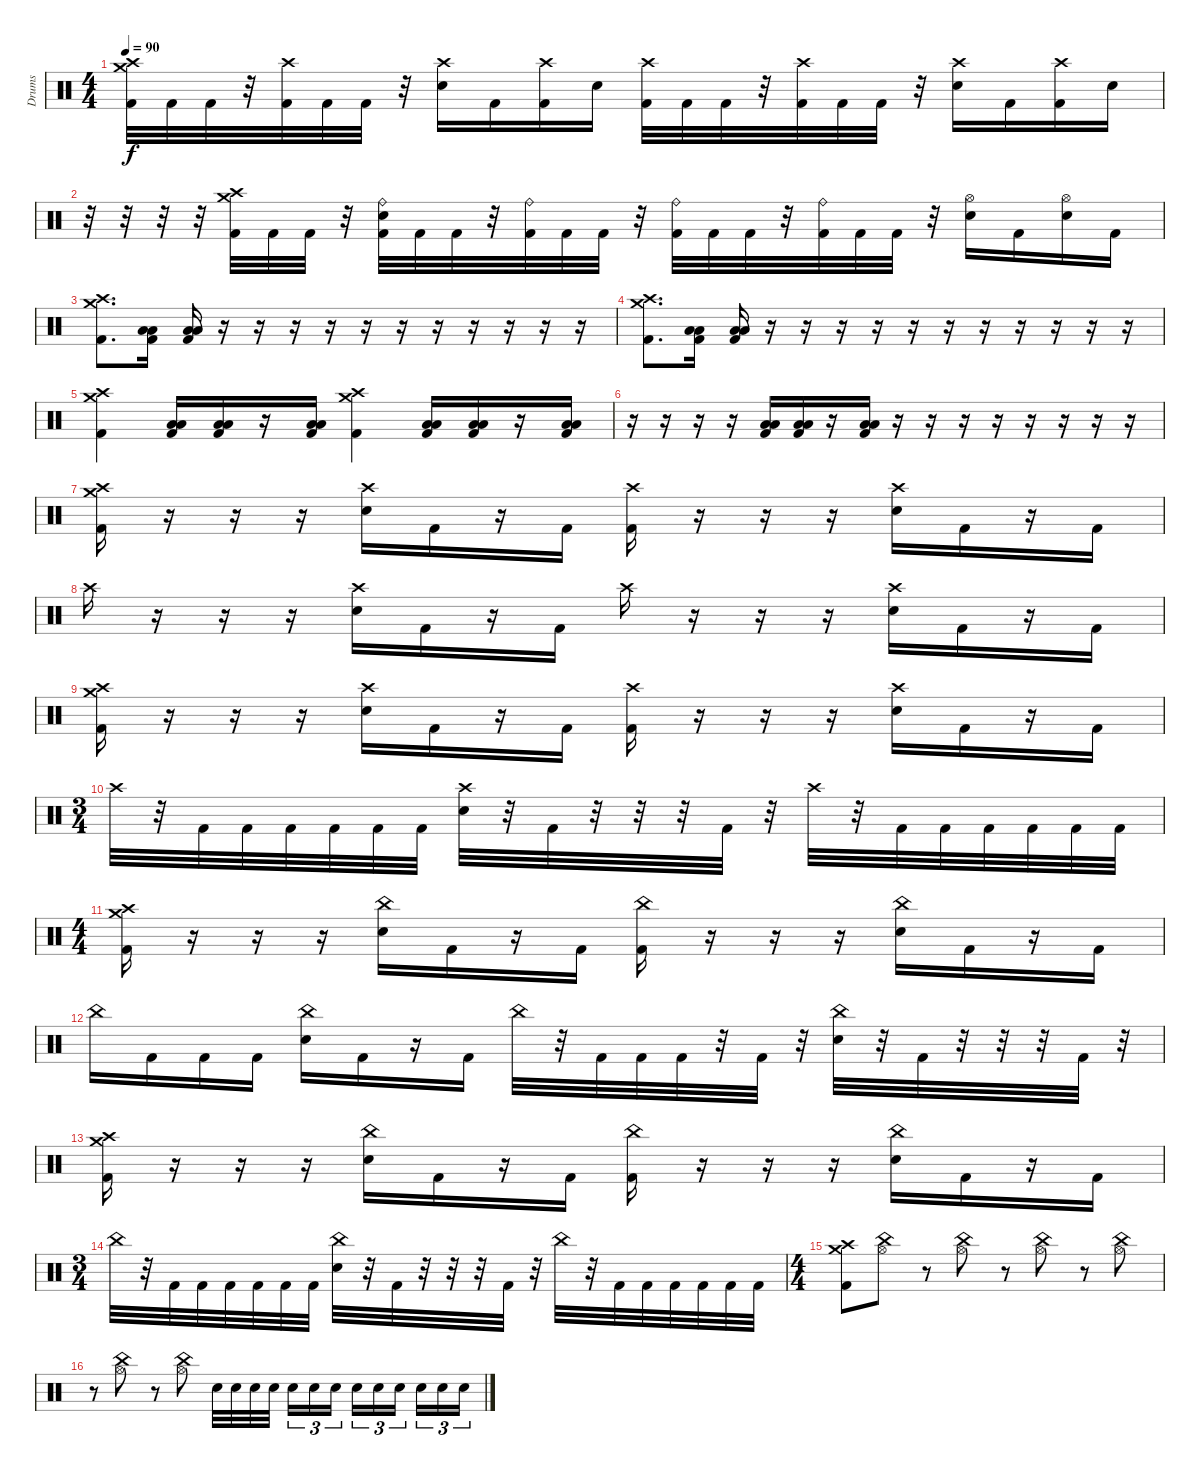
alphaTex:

\track ("Drums" "Drums") {instrument percussion}
\staff {score}
\articulation defaults
\ts (4 4)
\tempo 90
\clef neutral
\ks c
("Crash medium (hit)" "Crash high (hit)" "Kick (hit) 2").32{dy f} "Kick (hit) 2".32 "Kick (hit) 2".32 r.32 ("Crash high (hit)" "Kick (hit) 2").32 "Kick (hit) 2".32 "Kick (hit) 2".32 r.32 ("Crash high (hit)" "Electric Snare (hit)").16 "Kick (hit) 2".16 ("Crash high (hit)" "Kick (hit) 2").16 "Electric Snare (hit)".16 ("Crash high (hit)" "Kick (hit) 2").32 "Kick (hit) 2".32 "Kick (hit) 2".32 r.32 ("Crash high (hit)" "Kick (hit) 2").32 "Kick (hit) 2".32 "Kick (hit) 2".32 r.32 ("Crash high (hit)" "Electric Snare (hit)").16 "Kick (hit) 2".16 ("Crash high (hit)" "Kick (hit) 2").16 "Electric Snare (hit)".16 |
r.32 r.32 r.32 r.32 ("Crash medium (hit)" "Crash high (hit)" "Kick (hit) 2").32 "Kick (hit) 2".32 "Kick (hit) 2".32 r.32 ("Ride (bell)" "Electric Snare (hit)" "Kick (hit) 2").32 "Kick (hit) 2".32 "Kick (hit) 2".32 r.32 ("Ride (bell)" "Kick (hit) 2").32 "Kick (hit) 2".32 "Kick (hit) 2".32 r.32 ("Ride (bell)" "Kick (hit) 2").32 "Kick (hit) 2".32 "Kick (hit) 2".32 r.32 ("Ride (bell)" "Kick (hit) 2").32 "Kick (hit) 2".32 "Kick (hit) 2".32 r.32 ("Hi-Hat (open)" "Electric Snare (hit)").16 "Kick (hit) 2".16 ("Hi-Hat (open)" "Electric Snare (hit)").16 "Kick (hit) 2".16 |
("Crash medium (hit)" "Crash high (hit)" "Kick (hit) 2").8{d} ("Low Tom (hit)" "Low Floor Tom (hit)" "Kick (hit) 2").16 ("Low Tom (hit)" "Low Floor Tom (hit)" "Kick (hit) 2").16 r.16 r.16 r.16 r.16 r.16 r.16 r.16 r.16 r.16 r.16 r.16 |
("Crash medium (hit)" "Crash high (hit)" "Kick (hit) 2").8{d} ("Low Tom (hit)" "Low Floor Tom (hit)" "Kick (hit) 2").16 ("Low Tom (hit)" "Low Floor Tom (hit)" "Kick (hit) 2").16 r.16 r.16 r.16 r.16 r.16 r.16 r.16 r.16 r.16 r.16 r.16 |
("Crash medium (hit)" "Crash high (hit)" "Kick (hit) 2").4 ("Low Tom (hit)" "Low Floor Tom (hit)" "Kick (hit) 2").16 ("Low Tom (hit)" "Low Floor Tom (hit)" "Kick (hit) 2").16 r.16 ("Low Tom (hit)" "Low Floor Tom (hit)" "Kick (hit) 2").16 ("Crash medium (hit)" "Crash high (hit)" "Kick (hit) 2").4 ("Low Tom (hit)" "Low Floor Tom (hit)" "Kick (hit) 2").16 ("Low Tom (hit)" "Low Floor Tom (hit)" "Kick (hit) 2").16 r.16 ("Low Tom (hit)" "Low Floor Tom (hit)" "Kick (hit) 2").16 |
r.16 r.16 r.16 r.16 ("Low Tom (hit)" "Low Floor Tom (hit)" "Kick (hit) 2").16 ("Low Tom (hit)" "Low Floor Tom (hit)" "Kick (hit) 2").16 r.16 ("Low Tom (hit)" "Low Floor Tom (hit)" "Kick (hit) 2").16 r.16 r.16 r.16 r.16 r.16 r.16 r.16 r.16 |
("Crash medium (hit)" "Crash high (hit)" "Kick (hit) 2").16 r.16 r.16 r.16 ("Crash high (hit)" "Electric Snare (hit)").16 "Kick (hit) 2".16 r.16 "Kick (hit) 2".16 ("Crash high (hit)" "Kick (hit) 2").16 r.16 r.16 r.16 ("Crash high (hit)" "Electric Snare (hit)").16 "Kick (hit) 2".16 r.16 "Kick (hit) 2".16 |
"Crash high (hit)".16 r.16 r.16 r.16 ("Crash high (hit)" "Electric Snare (hit)").16 "Kick (hit) 2".16 r.16 "Kick (hit) 2".16 "Crash high (hit)".16 r.16 r.16 r.16 ("Crash high (hit)" "Electric Snare (hit)").16 "Kick (hit) 2".16 r.16 "Kick (hit) 2".16 |
("Crash medium (hit)" "Crash high (hit)" "Kick (hit) 2").16 r.16 r.16 r.16 ("Crash high (hit)" "Electric Snare (hit)").16 "Kick (hit) 2".16 r.16 "Kick (hit) 2".16 ("Crash high (hit)" "Kick (hit) 2").16 r.16 r.16 r.16 ("Crash high (hit)" "Electric Snare (hit)").16 "Kick (hit) 2".16 r.16 "Kick (hit) 2".16 |
\ts (3 4)
"Crash high (hit)".32 r.32 "Kick (hit) 2".32 "Kick (hit) 2".32 "Kick (hit) 2".32 "Kick (hit) 2".32 "Kick (hit) 2".32 "Kick (hit) 2".32 ("Crash high (hit)" "Electric Snare (hit)").32 r.32 "Kick (hit) 2".32 r.32 r.32 r.32 "Kick (hit) 2".32 r.32 "Crash high (hit)".32 r.32 "Kick (hit) 2".32 "Kick (hit) 2".32 "Kick (hit) 2".32 "Kick (hit) 2".32 "Kick (hit) 2".32 "Kick (hit) 2".32 |
\ts (4 4)
("Crash medium (hit)" "Crash high (hit)" "Kick (hit) 2").16 r.16 r.16 r.16 ("China (hit)" "Electric Snare (hit)").16 "Kick (hit) 2".16 r.16 "Kick (hit) 2".16 ("China (hit)" "Kick (hit) 2").16 r.16 r.16 r.16 ("China (hit)" "Electric Snare (hit)").16 "Kick (hit) 2".16 r.16 "Kick (hit) 2".16 |
"China (hit)".16 "Kick (hit) 2".16 "Kick (hit) 2".16 "Kick (hit) 2".16 ("China (hit)" "Electric Snare (hit)").16 "Kick (hit) 2".16 r.16 "Kick (hit) 2".16 "China (hit)".32 r.32 "Kick (hit) 2".32 "Kick (hit) 2".32 "Kick (hit) 2".32 r.32 "Kick (hit) 2".32 r.32 ("China (hit)" "Electric Snare (hit)").32 r.32 "Kick (hit) 2".32 r.32 r.32 r.32 "Kick (hit) 2".32 r.32 |
("Crash medium (hit)" "Crash high (hit)" "Kick (hit) 2").16 r.16 r.16 r.16 ("China (hit)" "Electric Snare (hit)").16 "Kick (hit) 2".16 r.16 "Kick (hit) 2".16 ("China (hit)" "Kick (hit) 2").16 r.16 r.16 r.16 ("China (hit)" "Electric Snare (hit)").16 "Kick (hit) 2".16 r.16 "Kick (hit) 2".16 |
\ts (3 4)
"China (hit)".32 r.32 "Kick (hit) 2".32 "Kick (hit) 2".32 "Kick (hit) 2".32 "Kick (hit) 2".32 "Kick (hit) 2".32 "Kick (hit) 2".32 ("China (hit)" "Electric Snare (hit)").32 r.32 "Kick (hit) 2".32 r.32 r.32 r.32 "Kick (hit) 2".32 r.32 "China (hit)".32 r.32 "Kick (hit) 2".32 "Kick (hit) 2".32 "Kick (hit) 2".32 "Kick (hit) 2".32 "Kick (hit) 2".32 "Kick (hit) 2".32 |
\ts (4 4)
("Crash medium (hit)" "Crash high (hit)" "Kick (hit) 2").8 ("China (hit)" "Hi-Hat (open)").8 r.8 ("China (hit)" "Hi-Hat (open)").8 r.8 ("China (hit)" "Hi-Hat (open)").8 r.8 ("China (hit)" "Hi-Hat (open)").8 |
r.8 ("China (hit)" "Hi-Hat (open)").8 r.8 ("China (hit)" "Hi-Hat (open)").8 "Electric Snare (hit)".32 "Electric Snare (hit)".32 "Electric Snare (hit)".32 "Electric Snare (hit)".32{beam splitsecondary} "Electric Snare (hit)".16{tu (3 2)} "Electric Snare (hit)".16{tu (3 2)} "Electric Snare (hit)".16{tu (3 2)} "Electric Snare (hit)".16{tu (3 2)} "Electric Snare (hit)".16{tu (3 2)} "Electric Snare (hit)".16{tu (3 2) beam splitsecondary} "Electric Snare (hit)".16{tu (3 2)} "Electric Snare (hit)".16{tu (3 2)} "Electric Snare (hit)".16{tu (3 2)}
